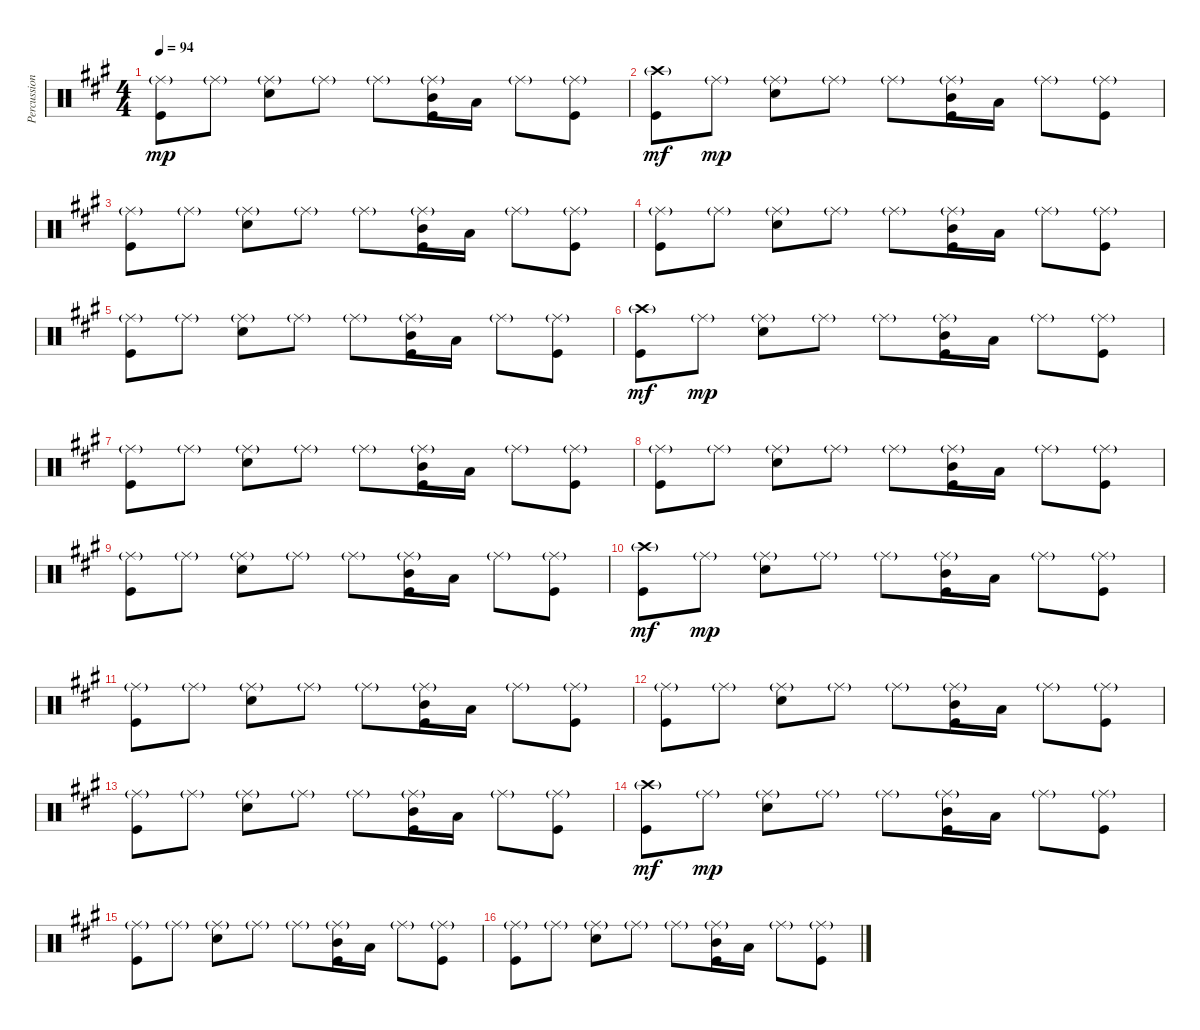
\track ("Percussion" "Percussion") {instrument percussion}
\staff {score}
\articulation defaults
\ts (4 4)
\tempo 94
\clef neutral
\ks a
("Ride (middle)"{g} "Kick (hit)").8{dy mp} "Ride (middle)"{g}.8 ("Ride (middle)"{g} "Electric Snare (hit)").8 "Ride (middle)"{g}.8 "Ride (middle)"{g}.8 ("Ride (middle)"{g} "Mid Tom (hit)" "Kick (hit)").16 "Low Tom (hit)".16 "Ride (middle)"{g}.8 ("Ride (middle)"{g} "Kick (hit)").8 |
("Crash high (hit)"{g} "Kick (hit)").8{dy mf} "Ride (middle)"{g}.8{dy mp} ("Ride (middle)"{g} "Electric Snare (hit)").8 "Ride (middle)"{g}.8 "Ride (middle)"{g}.8 ("Ride (middle)"{g} "Mid Tom (hit)" "Kick (hit)").16 "Low Tom (hit)".16 "Ride (middle)"{g}.8 ("Ride (middle)"{g} "Kick (hit)").8 |
("Ride (middle)"{g} "Kick (hit)").8 "Ride (middle)"{g}.8 ("Ride (middle)"{g} "Electric Snare (hit)").8 "Ride (middle)"{g}.8 "Ride (middle)"{g}.8 ("Ride (middle)"{g} "Mid Tom (hit)" "Kick (hit)").16 "Low Tom (hit)".16 "Ride (middle)"{g}.8 ("Ride (middle)"{g} "Kick (hit)").8 |
("Ride (middle)"{g} "Kick (hit)").8 "Ride (middle)"{g}.8 ("Ride (middle)"{g} "Electric Snare (hit)").8 "Ride (middle)"{g}.8 "Ride (middle)"{g}.8 ("Ride (middle)"{g} "Mid Tom (hit)" "Kick (hit)").16 "Low Tom (hit)".16 "Ride (middle)"{g}.8 ("Ride (middle)"{g} "Kick (hit)").8 |
("Ride (middle)"{g} "Kick (hit)").8 "Ride (middle)"{g}.8 ("Ride (middle)"{g} "Electric Snare (hit)").8 "Ride (middle)"{g}.8 "Ride (middle)"{g}.8 ("Ride (middle)"{g} "Mid Tom (hit)" "Kick (hit)").16 "Low Tom (hit)".16 "Ride (middle)"{g}.8 ("Ride (middle)"{g} "Kick (hit)").8 |
("Crash high (hit)"{g} "Kick (hit)").8{dy mf} "Ride (middle)"{g}.8{dy mp} ("Ride (middle)"{g} "Electric Snare (hit)").8 "Ride (middle)"{g}.8 "Ride (middle)"{g}.8 ("Ride (middle)"{g} "Mid Tom (hit)" "Kick (hit)").16 "Low Tom (hit)".16 "Ride (middle)"{g}.8 ("Ride (middle)"{g} "Kick (hit)").8 |
("Ride (middle)"{g} "Kick (hit)").8 "Ride (middle)"{g}.8 ("Ride (middle)"{g} "Electric Snare (hit)").8 "Ride (middle)"{g}.8 "Ride (middle)"{g}.8 ("Ride (middle)"{g} "Mid Tom (hit)" "Kick (hit)").16 "Low Tom (hit)".16 "Ride (middle)"{g}.8 ("Ride (middle)"{g} "Kick (hit)").8 |
("Ride (middle)"{g} "Kick (hit)").8 "Ride (middle)"{g}.8 ("Ride (middle)"{g} "Electric Snare (hit)").8 "Ride (middle)"{g}.8 "Ride (middle)"{g}.8 ("Ride (middle)"{g} "Mid Tom (hit)" "Kick (hit)").16 "Low Tom (hit)".16 "Ride (middle)"{g}.8 ("Ride (middle)"{g} "Kick (hit)").8 |
("Ride (middle)"{g} "Kick (hit)").8 "Ride (middle)"{g}.8 ("Ride (middle)"{g} "Electric Snare (hit)").8 "Ride (middle)"{g}.8 "Ride (middle)"{g}.8 ("Ride (middle)"{g} "Mid Tom (hit)" "Kick (hit)").16 "Low Tom (hit)".16 "Ride (middle)"{g}.8 ("Ride (middle)"{g} "Kick (hit)").8 |
("Crash high (hit)"{g} "Kick (hit)").8{dy mf} "Ride (middle)"{g}.8{dy mp} ("Ride (middle)"{g} "Electric Snare (hit)").8 "Ride (middle)"{g}.8 "Ride (middle)"{g}.8 ("Ride (middle)"{g} "Mid Tom (hit)" "Kick (hit)").16 "Low Tom (hit)".16 "Ride (middle)"{g}.8 ("Ride (middle)"{g} "Kick (hit)").8 |
("Ride (middle)"{g} "Kick (hit)").8 "Ride (middle)"{g}.8 ("Ride (middle)"{g} "Electric Snare (hit)").8 "Ride (middle)"{g}.8 "Ride (middle)"{g}.8 ("Ride (middle)"{g} "Mid Tom (hit)" "Kick (hit)").16 "Low Tom (hit)".16 "Ride (middle)"{g}.8 ("Ride (middle)"{g} "Kick (hit)").8 |
("Ride (middle)"{g} "Kick (hit)").8 "Ride (middle)"{g}.8 ("Ride (middle)"{g} "Electric Snare (hit)").8 "Ride (middle)"{g}.8 "Ride (middle)"{g}.8 ("Ride (middle)"{g} "Mid Tom (hit)" "Kick (hit)").16 "Low Tom (hit)".16 "Ride (middle)"{g}.8 ("Ride (middle)"{g} "Kick (hit)").8 |
("Ride (middle)"{g} "Kick (hit)").8 "Ride (middle)"{g}.8 ("Ride (middle)"{g} "Electric Snare (hit)").8 "Ride (middle)"{g}.8 "Ride (middle)"{g}.8 ("Ride (middle)"{g} "Mid Tom (hit)" "Kick (hit)").16 "Low Tom (hit)".16 "Ride (middle)"{g}.8 ("Ride (middle)"{g} "Kick (hit)").8 |
("Crash high (hit)"{g} "Kick (hit)").8{dy mf} "Ride (middle)"{g}.8{dy mp} ("Ride (middle)"{g} "Electric Snare (hit)").8 "Ride (middle)"{g}.8 "Ride (middle)"{g}.8 ("Ride (middle)"{g} "Mid Tom (hit)" "Kick (hit)").16 "Low Tom (hit)".16 "Ride (middle)"{g}.8 ("Ride (middle)"{g} "Kick (hit)").8 |
("Ride (middle)"{g} "Kick (hit)").8 "Ride (middle)"{g}.8 ("Ride (middle)"{g} "Electric Snare (hit)").8 "Ride (middle)"{g}.8 "Ride (middle)"{g}.8 ("Ride (middle)"{g} "Mid Tom (hit)" "Kick (hit)").16 "Low Tom (hit)".16 "Ride (middle)"{g}.8 ("Ride (middle)"{g} "Kick (hit)").8 |
("Ride (middle)"{g} "Kick (hit)").8 "Ride (middle)"{g}.8 ("Ride (middle)"{g} "Electric Snare (hit)").8 "Ride (middle)"{g}.8 "Ride (middle)"{g}.8 ("Ride (middle)"{g} "Mid Tom (hit)" "Kick (hit)").16 "Low Tom (hit)".16 "Ride (middle)"{g}.8 ("Ride (middle)"{g} "Kick (hit)").8
